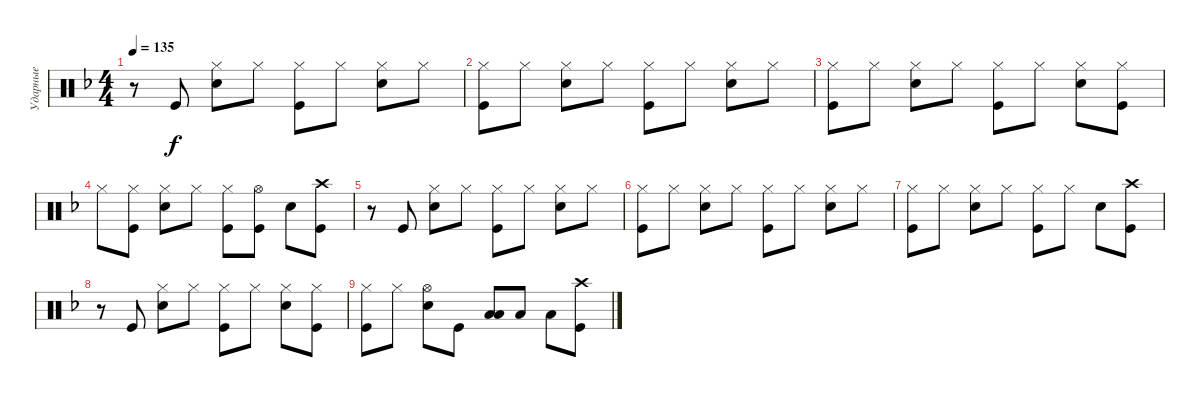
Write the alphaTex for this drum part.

\track ("Ударные" "Ударные") {instrument percussion}
\staff {score}
\articulation defaults
\ts (4 4)
\tempo 135
\clef neutral
\ks dminor
r.8{dy f} "Kick (hit)".8 ("Hi-Hat (closed)" "Snare (hit) 2").8 "Hi-Hat (closed)".8 ("Hi-Hat (closed)" "Kick (hit)").8 "Hi-Hat (closed)".8 ("Hi-Hat (closed)" "Snare (hit) 2").8 "Hi-Hat (closed)".8 |
("Hi-Hat (closed)" "Kick (hit)").8 "Hi-Hat (closed)".8 ("Hi-Hat (closed)" "Snare (hit) 2").8 "Hi-Hat (closed)".8 ("Hi-Hat (closed)" "Kick (hit)").8 "Hi-Hat (closed)".8 ("Hi-Hat (closed)" "Snare (hit) 2").8 "Hi-Hat (closed)".8 |
("Hi-Hat (closed)" "Kick (hit)").8 "Hi-Hat (closed)".8 ("Hi-Hat (closed)" "Snare (hit) 2").8 "Hi-Hat (closed)".8 ("Hi-Hat (closed)" "Kick (hit)").8 "Hi-Hat (closed)".8 ("Hi-Hat (closed)" "Snare (hit) 2").8 ("Hi-Hat (closed)" "Kick (hit)").8 |
"Hi-Hat (closed)".8 ("Hi-Hat (closed)" "Kick (hit)").8 ("Hi-Hat (closed)" "Snare (hit) 2").8 "Hi-Hat (closed)".8 ("Hi-Hat (closed)" "Kick (hit)").8 ("Hi-Hat (open)" "Kick (hit)").8 "Snare (hit) 2".8 ("Kick (hit)" "Crash high (hit)").8 |
r.8 "Kick (hit)".8 ("Hi-Hat (closed)" "Snare (hit) 2").8 "Hi-Hat (closed)".8 ("Hi-Hat (closed)" "Kick (hit)").8 "Hi-Hat (closed)".8 ("Hi-Hat (closed)" "Snare (hit) 2").8 "Hi-Hat (closed)".8 |
("Hi-Hat (closed)" "Kick (hit)").8 "Hi-Hat (closed)".8 ("Hi-Hat (closed)" "Snare (hit) 2").8 "Hi-Hat (closed)".8 ("Hi-Hat (closed)" "Kick (hit)").8 "Hi-Hat (closed)".8 ("Hi-Hat (closed)" "Snare (hit) 2").8 "Hi-Hat (closed)".8 |
("Hi-Hat (closed)" "Kick (hit)").8 "Hi-Hat (closed)".8 ("Hi-Hat (closed)" "Snare (hit) 2").8 "Hi-Hat (closed)".8 ("Hi-Hat (closed)" "Kick (hit)").8 "Hi-Hat (closed)".8 "Snare (hit) 2".8 ("Crash high (hit)" "Kick (hit)").8 |
r.8 "Kick (hit)".8 ("Hi-Hat (closed)" "Snare (hit) 2").8 "Hi-Hat (closed)".8 ("Hi-Hat (closed)" "Kick (hit)").8 "Hi-Hat (closed)".8 ("Hi-Hat (closed)" "Snare (hit) 2").8 ("Hi-Hat (closed)" "Kick (hit)").8 |
("Hi-Hat (closed)" "Kick (hit)").8 "Hi-Hat (closed)".8 ("Hi-Hat (open)" "Snare (hit) 2").8 "Kick (hit)".8 ("Low Tom (hit)" "Low Tom (hit)").8{bd 240} "Low Tom (hit)".8 "Low Tom (hit)".8 ("Kick (hit)" "Crash high (hit)").8
